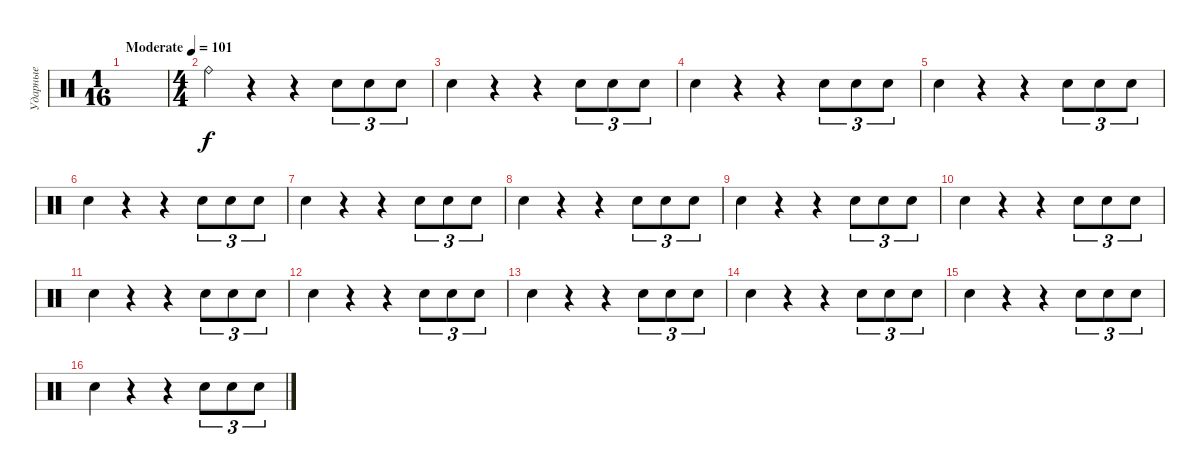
\track ("Ударные" "Ударные") {instrument percussion}
\staff {score}
\articulation defaults
\ts (1 16)
\tempo (101 "Moderate")
\clef neutral
\ks c
|
\ts (4 4)
"Ride (bell)".4 r.4 r.4 "Snare (hit) 2".8{tu (3 2) dy f} "Snare (hit) 2".8{tu (3 2)} "Snare (hit) 2".8{tu (3 2)} |
"Snare (hit) 2".4 r.4 r.4 "Snare (hit) 2".8{tu (3 2)} "Snare (hit) 2".8{tu (3 2)} "Snare (hit) 2".8{tu (3 2)} |
"Snare (hit) 2".4 r.4 r.4 "Snare (hit) 2".8{tu (3 2)} "Snare (hit) 2".8{tu (3 2)} "Snare (hit) 2".8{tu (3 2)} |
"Snare (hit) 2".4 r.4 r.4 "Snare (hit) 2".8{tu (3 2)} "Snare (hit) 2".8{tu (3 2)} "Snare (hit) 2".8{tu (3 2)} |
"Snare (hit) 2".4 r.4 r.4 "Snare (hit) 2".8{tu (3 2)} "Snare (hit) 2".8{tu (3 2)} "Snare (hit) 2".8{tu (3 2)} |
"Snare (hit) 2".4 r.4 r.4 "Snare (hit) 2".8{tu (3 2)} "Snare (hit) 2".8{tu (3 2)} "Snare (hit) 2".8{tu (3 2)} |
"Snare (hit) 2".4 r.4 r.4 "Snare (hit) 2".8{tu (3 2)} "Snare (hit) 2".8{tu (3 2)} "Snare (hit) 2".8{tu (3 2)} |
"Snare (hit) 2".4 r.4 r.4 "Snare (hit) 2".8{tu (3 2)} "Snare (hit) 2".8{tu (3 2)} "Snare (hit) 2".8{tu (3 2)} |
"Snare (hit) 2".4 r.4 r.4 "Snare (hit) 2".8{tu (3 2)} "Snare (hit) 2".8{tu (3 2)} "Snare (hit) 2".8{tu (3 2)} |
"Snare (hit) 2".4 r.4 r.4 "Snare (hit) 2".8{tu (3 2)} "Snare (hit) 2".8{tu (3 2)} "Snare (hit) 2".8{tu (3 2)} |
"Snare (hit) 2".4 r.4 r.4 "Snare (hit) 2".8{tu (3 2)} "Snare (hit) 2".8{tu (3 2)} "Snare (hit) 2".8{tu (3 2)} |
"Snare (hit) 2".4 r.4 r.4 "Snare (hit) 2".8{tu (3 2)} "Snare (hit) 2".8{tu (3 2)} "Snare (hit) 2".8{tu (3 2)} |
"Snare (hit) 2".4 r.4 r.4 "Snare (hit) 2".8{tu (3 2)} "Snare (hit) 2".8{tu (3 2)} "Snare (hit) 2".8{tu (3 2)} |
"Snare (hit) 2".4 r.4 r.4 "Snare (hit) 2".8{tu (3 2)} "Snare (hit) 2".8{tu (3 2)} "Snare (hit) 2".8{tu (3 2)} |
"Snare (hit) 2".4 r.4 r.4 "Snare (hit) 2".8{tu (3 2)} "Snare (hit) 2".8{tu (3 2)} "Snare (hit) 2".8{tu (3 2)}
